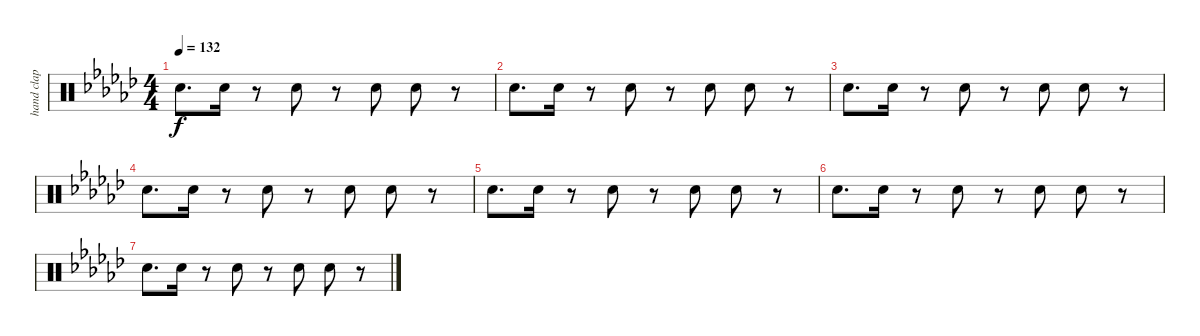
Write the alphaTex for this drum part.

\track ("hand clap" "hand clap") {instrument percussion}
\staff {score}
\articulation defaults
\ts (4 4)
\tempo 132
\clef neutral
\ks gb "Hand Clap (hit)".8{d dy f} "Hand Clap (hit)".16
r.8 "Hand Clap (hit)".8 r.8 "Hand Clap (hit)".8 "Hand Clap (hit)".8 r.8 |
"Hand Clap (hit)".8{d} "Hand Clap (hit)".16 r.8 "Hand Clap (hit)".8 r.8 "Hand Clap (hit)".8 "Hand Clap (hit)".8 r.8 |
"Hand Clap (hit)".8{d} "Hand Clap (hit)".16 r.8 "Hand Clap (hit)".8 r.8 "Hand Clap (hit)".8 "Hand Clap (hit)".8 r.8 |
"Hand Clap (hit)".8{d} "Hand Clap (hit)".16 r.8 "Hand Clap (hit)".8 r.8 "Hand Clap (hit)".8 "Hand Clap (hit)".8 r.8 |
"Hand Clap (hit)".8{d} "Hand Clap (hit)".16 r.8 "Hand Clap (hit)".8 r.8 "Hand Clap (hit)".8 "Hand Clap (hit)".8 r.8 |
"Hand Clap (hit)".8{d} "Hand Clap (hit)".16 r.8 "Hand Clap (hit)".8 r.8 "Hand Clap (hit)".8 "Hand Clap (hit)".8 r.8 |
"Hand Clap (hit)".8{d} "Hand Clap (hit)".16 r.8 "Hand Clap (hit)".8 r.8 "Hand Clap (hit)".8 "Hand Clap (hit)".8 r.8
